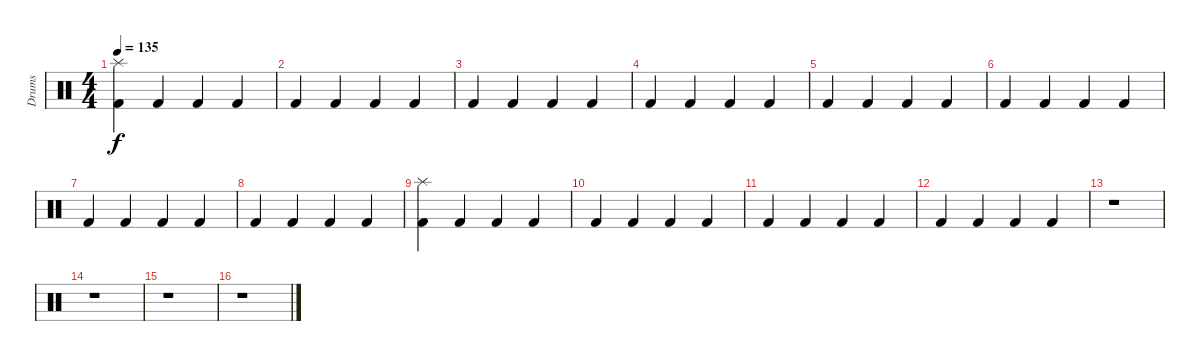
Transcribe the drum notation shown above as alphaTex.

\track ("Drums" "Drums") {instrument percussion}
\staff {score}
\articulation defaults
\ts (4 4)
\tempo 135
\clef neutral
\ks c
("Splash (hit)" "Kick (hit) 2").4{dy f} "Kick (hit) 2".4 "Kick (hit) 2".4 "Kick (hit) 2".4 |
"Kick (hit) 2".4 "Kick (hit) 2".4 "Kick (hit) 2".4 "Kick (hit) 2".4 |
"Kick (hit) 2".4 "Kick (hit) 2".4 "Kick (hit) 2".4 "Kick (hit) 2".4 |
"Kick (hit) 2".4 "Kick (hit) 2".4 "Kick (hit) 2".4 "Kick (hit) 2".4 |
"Kick (hit) 2".4 "Kick (hit) 2".4 "Kick (hit) 2".4 "Kick (hit) 2".4 |
"Kick (hit) 2".4 "Kick (hit) 2".4 "Kick (hit) 2".4 "Kick (hit) 2".4 |
"Kick (hit) 2".4 "Kick (hit) 2".4 "Kick (hit) 2".4 "Kick (hit) 2".4 |
"Kick (hit) 2".4 "Kick (hit) 2".4 "Kick (hit) 2".4 "Kick (hit) 2".4 |
("Splash (hit)" "Kick (hit) 2").4 "Kick (hit) 2".4 "Kick (hit) 2".4 "Kick (hit) 2".4 |
"Kick (hit) 2".4 "Kick (hit) 2".4 "Kick (hit) 2".4 "Kick (hit) 2".4 |
"Kick (hit) 2".4 "Kick (hit) 2".4 "Kick (hit) 2".4 "Kick (hit) 2".4 |
"Kick (hit) 2".4 "Kick (hit) 2".4 "Kick (hit) 2".4 "Kick (hit) 2".4 |
r.1 |
r.1 |
r.1 |
r.1
